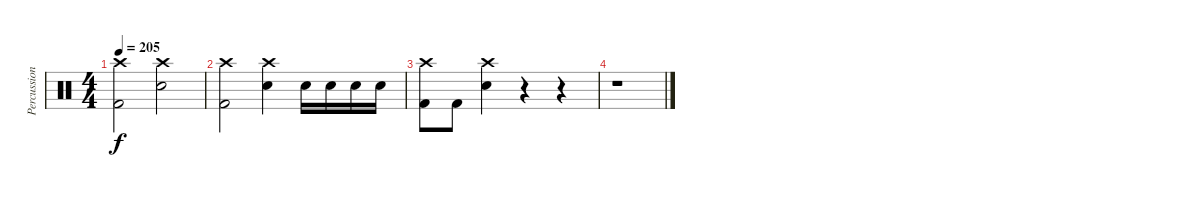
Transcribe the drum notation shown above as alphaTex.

\track ("Percussions" "Percussion") {instrument percussion}
\staff {score}
\articulation defaults
\ts (4 4)
\tempo 205
\clef neutral
\ks c
("Crash high (hit)" "Kick (hit) 2").2{dy f} ("Crash high (hit)" "Snare (hit) 2").2 |
("Crash high (hit)" "Kick (hit) 2").2 ("Crash high (hit)" "Snare (hit) 2").4 "Snare (hit) 2".16 "Snare (hit) 2".16 "Snare (hit) 2".16 "Snare (hit) 2".16 |
("Crash high (hit)" "Kick (hit) 2").8 "Kick (hit) 2".8 ("Crash high (hit)" "Snare (hit) 2").4 r.4 r.4 |
r.1
